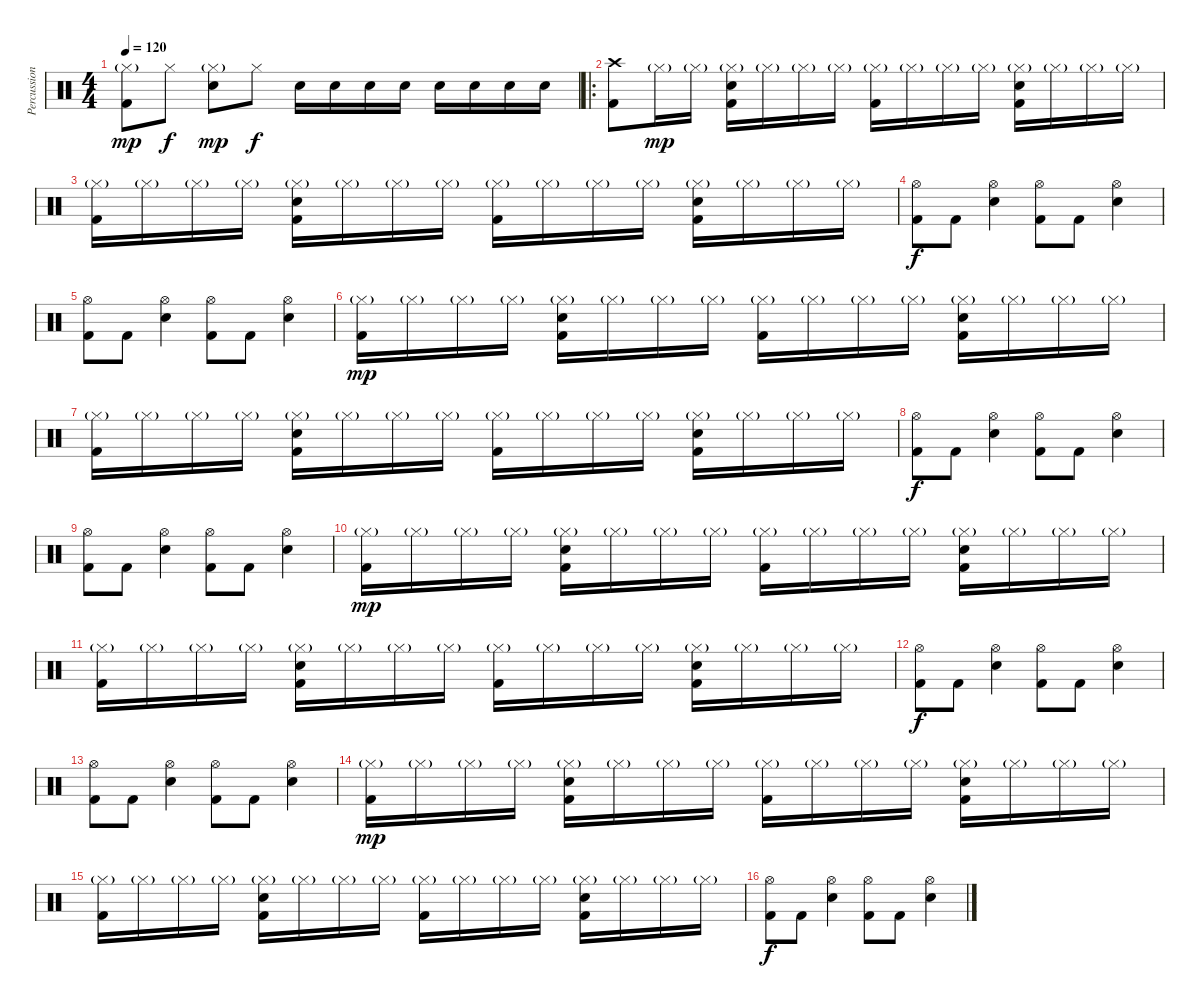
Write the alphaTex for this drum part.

\track ("Percussion" "Percussion") {instrument percussion}
\staff {score}
\articulation defaults
\ts (4 4)
\tempo 120
\clef neutral
\ks c
("Hi-Hat (closed)"{g} "Kick (hit) 2").8{dy mp} "Hi-Hat (closed)".8{dy f} ("Hi-Hat (closed)"{g} "Electric Snare (hit)").8{dy mp} "Hi-Hat (closed)".8{dy f} "Electric Snare (hit)".16 "Electric Snare (hit)".16 "Electric Snare (hit)".16 "Electric Snare (hit)".16 "Electric Snare (hit)".16 "Electric Snare (hit)".16 "Electric Snare (hit)".16 "Electric Snare (hit)".16 |
\ro
("Crash high (hit)" "Kick (hit) 2").8 "Hi-Hat (closed)"{g}.16{dy mp} "Hi-Hat (closed)"{g}.16 ("Hi-Hat (closed)"{g} "Electric Snare (hit)" "Kick (hit) 2").16 "Hi-Hat (closed)"{g}.16 "Hi-Hat (closed)"{g}.16 "Hi-Hat (closed)"{g}.16 ("Hi-Hat (closed)"{g} "Kick (hit) 2").16 "Hi-Hat (closed)"{g}.16 "Hi-Hat (closed)"{g}.16 "Hi-Hat (closed)"{g}.16 ("Hi-Hat (closed)"{g} "Electric Snare (hit)" "Kick (hit) 2").16 "Hi-Hat (closed)"{g}.16 "Hi-Hat (closed)"{g}.16 "Hi-Hat (closed)"{g}.16 |
("Hi-Hat (closed)"{g} "Kick (hit) 2").16 "Hi-Hat (closed)"{g}.16 "Hi-Hat (closed)"{g}.16 "Hi-Hat (closed)"{g}.16 ("Hi-Hat (closed)"{g} "Electric Snare (hit)" "Kick (hit) 2").16 "Hi-Hat (closed)"{g}.16 "Hi-Hat (closed)"{g}.16 "Hi-Hat (closed)"{g}.16 ("Hi-Hat (closed)"{g} "Kick (hit) 2").16 "Hi-Hat (closed)"{g}.16 "Hi-Hat (closed)"{g}.16 "Hi-Hat (closed)"{g}.16 ("Hi-Hat (closed)"{g} "Electric Snare (hit)" "Kick (hit) 2").16 "Hi-Hat (closed)"{g}.16 "Hi-Hat (closed)"{g}.16 "Hi-Hat (closed)"{g}.16 |
("Hi-Hat (open)" "Kick (hit) 2").8{dy f} "Kick (hit) 2".8 ("Hi-Hat (open)" "Electric Snare (hit)").4 ("Hi-Hat (open)" "Kick (hit) 2").8 "Kick (hit) 2".8 ("Hi-Hat (open)" "Electric Snare (hit)").4 |
("Hi-Hat (open)" "Kick (hit) 2").8 "Kick (hit) 2".8 ("Hi-Hat (open)" "Electric Snare (hit)").4 ("Hi-Hat (open)" "Kick (hit) 2").8 "Kick (hit) 2".8 ("Hi-Hat (open)" "Electric Snare (hit)").4 |
("Hi-Hat (closed)"{g} "Kick (hit) 2").16{dy mp} "Hi-Hat (closed)"{g}.16 "Hi-Hat (closed)"{g}.16 "Hi-Hat (closed)"{g}.16 ("Hi-Hat (closed)"{g} "Electric Snare (hit)" "Kick (hit) 2").16 "Hi-Hat (closed)"{g}.16 "Hi-Hat (closed)"{g}.16 "Hi-Hat (closed)"{g}.16 ("Hi-Hat (closed)"{g} "Kick (hit) 2").16 "Hi-Hat (closed)"{g}.16 "Hi-Hat (closed)"{g}.16 "Hi-Hat (closed)"{g}.16 ("Hi-Hat (closed)"{g} "Electric Snare (hit)" "Kick (hit) 2").16 "Hi-Hat (closed)"{g}.16 "Hi-Hat (closed)"{g}.16 "Hi-Hat (closed)"{g}.16 |
("Hi-Hat (closed)"{g} "Kick (hit) 2").16 "Hi-Hat (closed)"{g}.16 "Hi-Hat (closed)"{g}.16 "Hi-Hat (closed)"{g}.16 ("Hi-Hat (closed)"{g} "Electric Snare (hit)" "Kick (hit) 2").16 "Hi-Hat (closed)"{g}.16 "Hi-Hat (closed)"{g}.16 "Hi-Hat (closed)"{g}.16 ("Hi-Hat (closed)"{g} "Kick (hit) 2").16 "Hi-Hat (closed)"{g}.16 "Hi-Hat (closed)"{g}.16 "Hi-Hat (closed)"{g}.16 ("Hi-Hat (closed)"{g} "Electric Snare (hit)" "Kick (hit) 2").16 "Hi-Hat (closed)"{g}.16 "Hi-Hat (closed)"{g}.16 "Hi-Hat (closed)"{g}.16 |
("Hi-Hat (open)" "Kick (hit) 2").8{dy f} "Kick (hit) 2".8 ("Hi-Hat (open)" "Electric Snare (hit)").4 ("Hi-Hat (open)" "Kick (hit) 2").8 "Kick (hit) 2".8 ("Hi-Hat (open)" "Electric Snare (hit)").4 |
("Hi-Hat (open)" "Kick (hit) 2").8 "Kick (hit) 2".8 ("Hi-Hat (open)" "Electric Snare (hit)").4 ("Hi-Hat (open)" "Kick (hit) 2").8 "Kick (hit) 2".8 ("Hi-Hat (open)" "Electric Snare (hit)").4 |
("Hi-Hat (closed)"{g} "Kick (hit) 2").16{dy mp} "Hi-Hat (closed)"{g}.16 "Hi-Hat (closed)"{g}.16 "Hi-Hat (closed)"{g}.16 ("Hi-Hat (closed)"{g} "Electric Snare (hit)" "Kick (hit) 2").16 "Hi-Hat (closed)"{g}.16 "Hi-Hat (closed)"{g}.16 "Hi-Hat (closed)"{g}.16 ("Hi-Hat (closed)"{g} "Kick (hit) 2").16 "Hi-Hat (closed)"{g}.16 "Hi-Hat (closed)"{g}.16 "Hi-Hat (closed)"{g}.16 ("Hi-Hat (closed)"{g} "Electric Snare (hit)" "Kick (hit) 2").16 "Hi-Hat (closed)"{g}.16 "Hi-Hat (closed)"{g}.16 "Hi-Hat (closed)"{g}.16 |
("Hi-Hat (closed)"{g} "Kick (hit) 2").16 "Hi-Hat (closed)"{g}.16 "Hi-Hat (closed)"{g}.16 "Hi-Hat (closed)"{g}.16 ("Hi-Hat (closed)"{g} "Electric Snare (hit)" "Kick (hit) 2").16 "Hi-Hat (closed)"{g}.16 "Hi-Hat (closed)"{g}.16 "Hi-Hat (closed)"{g}.16 ("Hi-Hat (closed)"{g} "Kick (hit) 2").16 "Hi-Hat (closed)"{g}.16 "Hi-Hat (closed)"{g}.16 "Hi-Hat (closed)"{g}.16 ("Hi-Hat (closed)"{g} "Electric Snare (hit)" "Kick (hit) 2").16 "Hi-Hat (closed)"{g}.16 "Hi-Hat (closed)"{g}.16 "Hi-Hat (closed)"{g}.16 |
("Hi-Hat (open)" "Kick (hit) 2").8{dy f} "Kick (hit) 2".8 ("Hi-Hat (open)" "Electric Snare (hit)").4 ("Hi-Hat (open)" "Kick (hit) 2").8 "Kick (hit) 2".8 ("Hi-Hat (open)" "Electric Snare (hit)").4 |
("Hi-Hat (open)" "Kick (hit) 2").8 "Kick (hit) 2".8 ("Hi-Hat (open)" "Electric Snare (hit)").4 ("Hi-Hat (open)" "Kick (hit) 2").8 "Kick (hit) 2".8 ("Hi-Hat (open)" "Electric Snare (hit)").4 |
("Hi-Hat (closed)"{g} "Kick (hit) 2").16{dy mp} "Hi-Hat (closed)"{g}.16 "Hi-Hat (closed)"{g}.16 "Hi-Hat (closed)"{g}.16 ("Hi-Hat (closed)"{g} "Electric Snare (hit)" "Kick (hit) 2").16 "Hi-Hat (closed)"{g}.16 "Hi-Hat (closed)"{g}.16 "Hi-Hat (closed)"{g}.16 ("Hi-Hat (closed)"{g} "Kick (hit) 2").16 "Hi-Hat (closed)"{g}.16 "Hi-Hat (closed)"{g}.16 "Hi-Hat (closed)"{g}.16 ("Hi-Hat (closed)"{g} "Electric Snare (hit)" "Kick (hit) 2").16 "Hi-Hat (closed)"{g}.16 "Hi-Hat (closed)"{g}.16 "Hi-Hat (closed)"{g}.16 |
("Hi-Hat (closed)"{g} "Kick (hit) 2").16 "Hi-Hat (closed)"{g}.16 "Hi-Hat (closed)"{g}.16 "Hi-Hat (closed)"{g}.16 ("Hi-Hat (closed)"{g} "Electric Snare (hit)" "Kick (hit) 2").16 "Hi-Hat (closed)"{g}.16 "Hi-Hat (closed)"{g}.16 "Hi-Hat (closed)"{g}.16 ("Hi-Hat (closed)"{g} "Kick (hit) 2").16 "Hi-Hat (closed)"{g}.16 "Hi-Hat (closed)"{g}.16 "Hi-Hat (closed)"{g}.16 ("Hi-Hat (closed)"{g} "Electric Snare (hit)" "Kick (hit) 2").16 "Hi-Hat (closed)"{g}.16 "Hi-Hat (closed)"{g}.16 "Hi-Hat (closed)"{g}.16 |
("Hi-Hat (open)" "Kick (hit) 2").8{dy f} "Kick (hit) 2".8 ("Hi-Hat (open)" "Electric Snare (hit)").4 ("Hi-Hat (open)" "Kick (hit) 2").8 "Kick (hit) 2".8 ("Hi-Hat (open)" "Electric Snare (hit)").4
